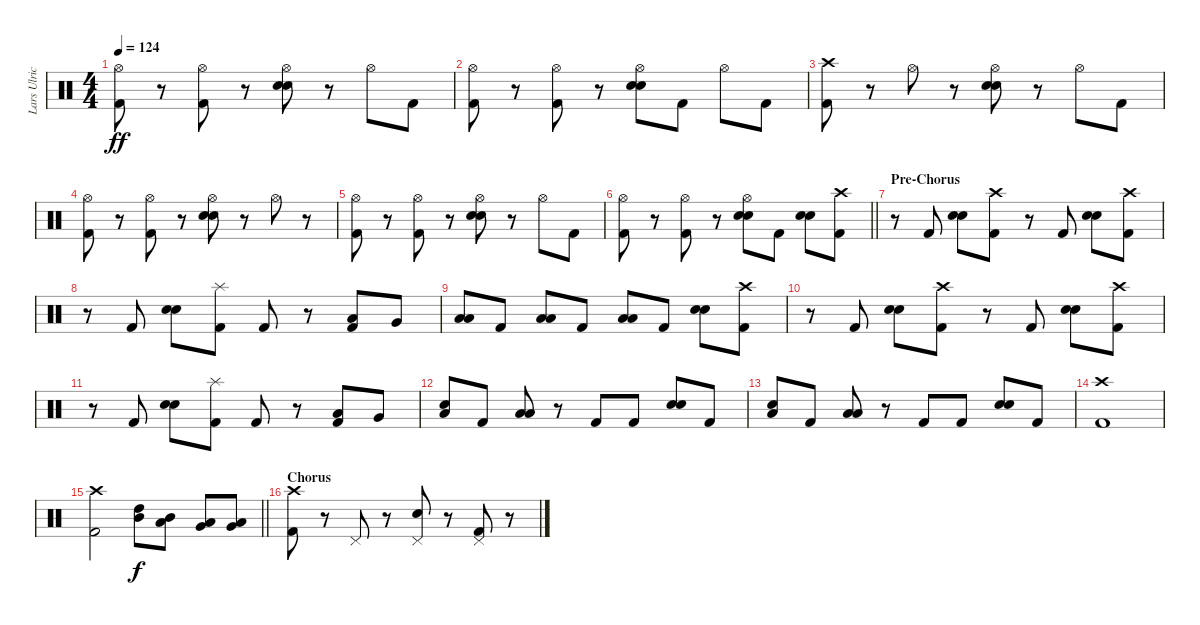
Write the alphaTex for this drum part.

\track ("Lars Ulrich" "Lars Ulric") {instrument percussion}
\staff {score}
\articulation defaults
\ts (4 4)
\tempo 124
\clef neutral
\ks c
("Hi-Hat (open)" "Kick (hit) 2").8{dy ff} r.8 ("Hi-Hat (open)" "Kick (hit) 2").8 r.8 ("Hi-Hat (open)" "Electric Snare (hit)" "Electric Snare (hit)").8 r.8 "Hi-Hat (open)".8 "Kick (hit) 2".8 |
("Hi-Hat (open)" "Kick (hit) 2").8 r.8 ("Hi-Hat (open)" "Kick (hit) 2").8 r.8 ("Hi-Hat (open)" "Electric Snare (hit)" "Electric Snare (hit)").8 "Kick (hit) 2".8 "Hi-Hat (open)".8 "Kick (hit) 2".8 |
("Crash high (hit)" "Kick (hit) 2").8 r.8 "Hi-Hat (open)".8 r.8 ("Hi-Hat (open)" "Electric Snare (hit)" "Electric Snare (hit)").8 r.8 "Hi-Hat (open)".8 "Kick (hit) 2".8 |
("Hi-Hat (open)" "Kick (hit) 2").8 r.8 ("Hi-Hat (open)" "Kick (hit) 2").8 r.8 ("Hi-Hat (open)" "Electric Snare (hit)" "Electric Snare (hit)").8 r.8 "Hi-Hat (open)".8 r.8 |
("Hi-Hat (open)" "Kick (hit) 2").8 r.8 ("Hi-Hat (open)" "Kick (hit) 2").8 r.8 ("Hi-Hat (open)" "Electric Snare (hit)" "Electric Snare (hit)").8 r.8 "Hi-Hat (open)".8 "Kick (hit) 2".8 |
\barLineRight lightlight
("Hi-Hat (open)" "Kick (hit) 2").8 r.8 ("Hi-Hat (open)" "Kick (hit) 2").8 r.8 ("Hi-Hat (open)" "Electric Snare (hit)" "Electric Snare (hit)").8 "Kick (hit) 2".8 ("Electric Snare (hit)" "Electric Snare (hit)").8{bd 240} ("Crash high (hit)" "Kick (hit) 2").8 |
\section ("" "Pre-Chorus")
r.8 "Kick (hit) 2".8 ("Electric Snare (hit)" "Electric Snare (hit)").8{bd 240} ("Crash high (hit)" "Kick (hit) 2").8 r.8 "Kick (hit) 2".8 ("Electric Snare (hit)" "Electric Snare (hit)").8{bd 240} ("Crash high (hit)" "Kick (hit) 2").8 |
r.8 "Kick (hit) 2".8 ("Electric Snare (hit)" "Electric Snare (hit)").8{bd 240} ("Splash (hit)" "Kick (hit) 2").8 "Kick (hit) 2".8 r.8 ("Low Floor Tom (hit)" "Kick (hit) 2").8 "Very Low Tom (hit)".8 |
("Low Tom (hit)" "Low Tom (hit)").8 "Kick (hit) 2".8 ("Low Tom (hit)" "Low Tom (hit)").8 "Kick (hit) 2".8 ("Low Tom (hit)" "Low Tom (hit)").8 "Kick (hit) 2".8 ("Electric Snare (hit)" "Electric Snare (hit)").8{bd 240} ("Crash high (hit)" "Kick (hit) 2").8 |
r.8 "Kick (hit) 2".8 ("Electric Snare (hit)" "Electric Snare (hit)").8{bd 240} ("Crash high (hit)" "Kick (hit) 2").8 r.8 "Kick (hit) 2".8 ("Electric Snare (hit)" "Electric Snare (hit)").8{bd 240} ("Crash high (hit)" "Kick (hit) 2").8 |
r.8 "Kick (hit) 2".8 ("Electric Snare (hit)" "Electric Snare (hit)").8{bd 240} ("Splash (hit)" "Kick (hit) 2").8 "Kick (hit) 2".8 r.8 ("Low Floor Tom (hit)" "Kick (hit) 2").8 "Very Low Tom (hit)".8 |
("Electric Snare (hit)" "Low Tom (hit)").8 "Kick (hit) 2".8 ("Low Tom (hit)" "Low Tom (hit)").8 r.8 "Kick (hit) 2".8 "Kick (hit) 2".8 ("Electric Snare (hit)" "Electric Snare (hit)").8{bd 240} "Kick (hit) 2".8 |
("Electric Snare (hit)" "Low Tom (hit)").8 "Kick (hit) 2".8 ("Low Tom (hit)" "Low Tom (hit)").8 r.8 "Kick (hit) 2".8 "Kick (hit) 2".8 ("Electric Snare (hit)" "Electric Snare (hit)").8{bd 240} "Kick (hit) 2".8 |
("Crash high (hit)" "Kick (hit) 2").1 |
\barLineRight lightlight
("Crash high (hit)" "Kick (hit) 2").2 ("High Tom (hit)" "Mid Tom (hit)").8{dy f} ("Mid Tom (hit)" "Low Tom (hit)").8 ("Low Tom (hit)" "Very Low Tom (hit)").8 ("Very Low Tom (hit)" "Low Floor Tom (hit)").8 |
\section ("" "Chorus")
("Crash high (hit)" "Kick (hit) 2").8 r.8 "Pedal Hi-Hat (hit)".8 r.8 ("Pedal Hi-Hat (hit)" "Electric Snare (hit)").8 r.8 ("Pedal Hi-Hat (hit)" "Kick (hit) 2").8 r.8
